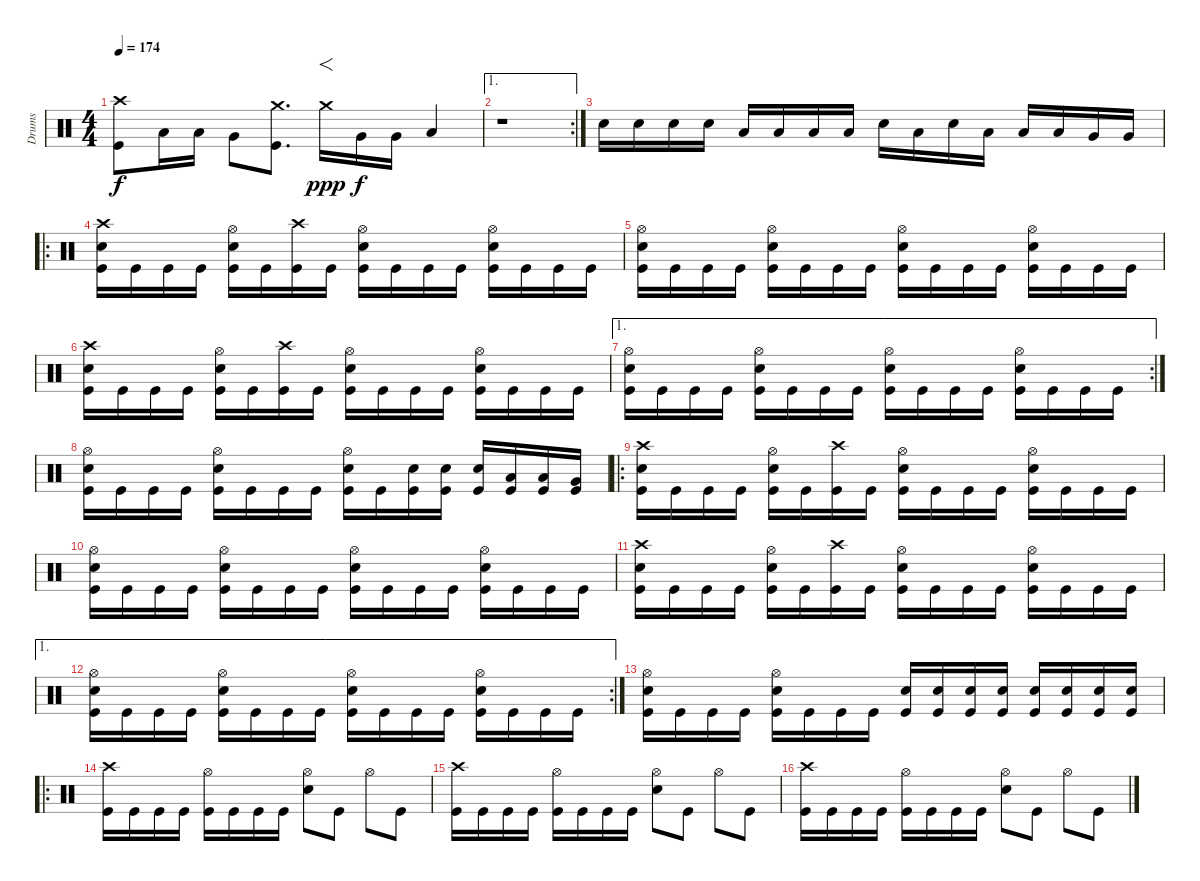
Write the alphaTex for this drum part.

\track ("Drums" "Drums") {instrument percussion}
\staff {score}
\articulation defaults
\ts (4 4)
\tempo 174
\clef neutral
\ks c
("Crash high (hit)" "Kick (hit)").8{dy f} "Low Tom (hit)".16 "Low Tom (hit)".16 "Very Low Tom (hit)".8 ("Crash medium (hit)" "Kick (hit)").8{d} "Crash medium (hit)".16{f dy ppp} "Very Low Tom (hit)".16{dy f} "Very Low Tom (hit)".16 "Low Floor Tom (hit)".4 |
\ae 1
\rc 2
r.1 |
"Electric Snare (hit)".16 "Electric Snare (hit)".16 "Electric Snare (hit)".16 "Electric Snare (hit)".16 "Low Tom (hit)".16 "Low Tom (hit)".16 "Low Tom (hit)".16 "Low Tom (hit)".16 "Electric Snare (hit)".16 "Low Tom (hit)".16 "Electric Snare (hit)".16 "Low Tom (hit)".16 "Low Tom (hit)".16 "Low Tom (hit)".16 "Very Low Tom (hit)".16 "Very Low Tom (hit)".16 |
\ro
("Crash high (hit)" "Electric Snare (hit)" "Kick (hit)").16 "Kick (hit)".16 "Kick (hit)".16 "Kick (hit)".16 ("Hi-Hat (open)" "Electric Snare (hit)" "Kick (hit)").16 "Kick (hit)".16 ("Crash high (hit)" "Kick (hit)").16 "Kick (hit)".16 ("Hi-Hat (open)" "Electric Snare (hit)" "Kick (hit)").16 "Kick (hit)".16 "Kick (hit)".16 "Kick (hit)".16 ("Hi-Hat (open)" "Electric Snare (hit)" "Kick (hit)").16 "Kick (hit)".16 "Kick (hit)".16 "Kick (hit)".16 |
("Hi-Hat (open)" "Electric Snare (hit)" "Kick (hit)").16 "Kick (hit)".16 "Kick (hit)".16 "Kick (hit)".16 ("Hi-Hat (open)" "Electric Snare (hit)" "Kick (hit)").16 "Kick (hit)".16 "Kick (hit)".16 "Kick (hit)".16 ("Hi-Hat (open)" "Electric Snare (hit)" "Kick (hit)").16 "Kick (hit)".16 "Kick (hit)".16 "Kick (hit)".16 ("Hi-Hat (open)" "Electric Snare (hit)" "Kick (hit)").16 "Kick (hit)".16 "Kick (hit)".16 "Kick (hit)".16 |
("Crash high (hit)" "Electric Snare (hit)" "Kick (hit)").16 "Kick (hit)".16 "Kick (hit)".16 "Kick (hit)".16 ("Hi-Hat (open)" "Electric Snare (hit)" "Kick (hit)").16 "Kick (hit)".16 ("Crash high (hit)" "Kick (hit)").16 "Kick (hit)".16 ("Hi-Hat (open)" "Electric Snare (hit)" "Kick (hit)").16 "Kick (hit)".16 "Kick (hit)".16 "Kick (hit)".16 ("Hi-Hat (open)" "Electric Snare (hit)" "Kick (hit)").16 "Kick (hit)".16 "Kick (hit)".16 "Kick (hit)".16 |
\ae 1
\rc 2
("Hi-Hat (open)" "Electric Snare (hit)" "Kick (hit)").16 "Kick (hit)".16 "Kick (hit)".16 "Kick (hit)".16 ("Hi-Hat (open)" "Electric Snare (hit)" "Kick (hit)").16 "Kick (hit)".16 "Kick (hit)".16 "Kick (hit)".16 ("Hi-Hat (open)" "Electric Snare (hit)" "Kick (hit)").16 "Kick (hit)".16 "Kick (hit)".16 "Kick (hit)".16 ("Hi-Hat (open)" "Electric Snare (hit)" "Kick (hit)").16 "Kick (hit)".16 "Kick (hit)".16 "Kick (hit)".16 |
("Hi-Hat (open)" "Electric Snare (hit)" "Kick (hit)").16 "Kick (hit)".16 "Kick (hit)".16 "Kick (hit)".16 ("Hi-Hat (open)" "Electric Snare (hit)" "Kick (hit)").16 "Kick (hit)".16 "Kick (hit)".16 "Kick (hit)".16 ("Hi-Hat (open)" "Electric Snare (hit)" "Kick (hit)").16 "Kick (hit)".16 ("Electric Snare (hit)" "Kick (hit)").16 ("Electric Snare (hit)" "Kick (hit)").16 ("Electric Snare (hit)" "Kick (hit)").16 ("Low Tom (hit)" "Kick (hit)").16 ("Low Tom (hit)" "Kick (hit)").16 ("Very Low Tom (hit)" "Kick (hit)").16 |
\ro
("Crash high (hit)" "Electric Snare (hit)" "Kick (hit)").16 "Kick (hit)".16 "Kick (hit)".16 "Kick (hit)".16 ("Hi-Hat (open)" "Electric Snare (hit)" "Kick (hit)").16 "Kick (hit)".16 ("Crash high (hit)" "Kick (hit)").16 "Kick (hit)".16 ("Hi-Hat (open)" "Electric Snare (hit)" "Kick (hit)").16 "Kick (hit)".16 "Kick (hit)".16 "Kick (hit)".16 ("Hi-Hat (open)" "Electric Snare (hit)" "Kick (hit)").16 "Kick (hit)".16 "Kick (hit)".16 "Kick (hit)".16 |
("Hi-Hat (open)" "Electric Snare (hit)" "Kick (hit)").16 "Kick (hit)".16 "Kick (hit)".16 "Kick (hit)".16 ("Hi-Hat (open)" "Electric Snare (hit)" "Kick (hit)").16 "Kick (hit)".16 "Kick (hit)".16 "Kick (hit)".16 ("Hi-Hat (open)" "Electric Snare (hit)" "Kick (hit)").16 "Kick (hit)".16 "Kick (hit)".16 "Kick (hit)".16 ("Hi-Hat (open)" "Electric Snare (hit)" "Kick (hit)").16 "Kick (hit)".16 "Kick (hit)".16 "Kick (hit)".16 |
("Crash high (hit)" "Electric Snare (hit)" "Kick (hit)").16 "Kick (hit)".16 "Kick (hit)".16 "Kick (hit)".16 ("Hi-Hat (open)" "Electric Snare (hit)" "Kick (hit)").16 "Kick (hit)".16 ("Crash high (hit)" "Kick (hit)").16 "Kick (hit)".16 ("Hi-Hat (open)" "Electric Snare (hit)" "Kick (hit)").16 "Kick (hit)".16 "Kick (hit)".16 "Kick (hit)".16 ("Hi-Hat (open)" "Electric Snare (hit)" "Kick (hit)").16 "Kick (hit)".16 "Kick (hit)".16 "Kick (hit)".16 |
\ae 1
\rc 2
("Hi-Hat (open)" "Electric Snare (hit)" "Kick (hit)").16 "Kick (hit)".16 "Kick (hit)".16 "Kick (hit)".16 ("Hi-Hat (open)" "Electric Snare (hit)" "Kick (hit)").16 "Kick (hit)".16 "Kick (hit)".16 "Kick (hit)".16 ("Hi-Hat (open)" "Electric Snare (hit)" "Kick (hit)").16 "Kick (hit)".16 "Kick (hit)".16 "Kick (hit)".16 ("Hi-Hat (open)" "Electric Snare (hit)" "Kick (hit)").16 "Kick (hit)".16 "Kick (hit)".16 "Kick (hit)".16 |
("Hi-Hat (open)" "Electric Snare (hit)" "Kick (hit)").16 "Kick (hit)".16 "Kick (hit)".16 "Kick (hit)".16 ("Hi-Hat (open)" "Electric Snare (hit)" "Kick (hit)").16 "Kick (hit)".16 "Kick (hit)".16 "Kick (hit)".16 ("Electric Snare (hit)" "Kick (hit)").16 ("Electric Snare (hit)" "Kick (hit)").16 ("Electric Snare (hit)" "Kick (hit)").16 ("Electric Snare (hit)" "Kick (hit)").16 ("Electric Snare (hit)" "Kick (hit)").16 ("Electric Snare (hit)" "Kick (hit)").16 ("Electric Snare (hit)" "Kick (hit)").16 ("Electric Snare (hit)" "Kick (hit)").16 |
\ro
("Crash high (hit)" "Kick (hit)").16 "Kick (hit)".16 "Kick (hit)".16 "Kick (hit)".16 ("Hi-Hat (open)" "Kick (hit)").16 "Kick (hit)".16 "Kick (hit)".16 "Kick (hit)".16 ("Hi-Hat (open)" "Electric Snare (hit)").8 "Kick (hit)".8 "Hi-Hat (open)".8 "Kick (hit)".8 |
("Crash high (hit)" "Kick (hit)").16 "Kick (hit)".16 "Kick (hit)".16 "Kick (hit)".16 ("Hi-Hat (open)" "Kick (hit)").16 "Kick (hit)".16 "Kick (hit)".16 "Kick (hit)".16 ("Hi-Hat (open)" "Electric Snare (hit)").8 "Kick (hit)".8 "Hi-Hat (open)".8 "Kick (hit)".8 |
("Crash high (hit)" "Kick (hit)").16 "Kick (hit)".16 "Kick (hit)".16 "Kick (hit)".16 ("Hi-Hat (open)" "Kick (hit)").16 "Kick (hit)".16 "Kick (hit)".16 "Kick (hit)".16 ("Hi-Hat (open)" "Electric Snare (hit)").8 "Kick (hit)".8 "Hi-Hat (open)".8 "Kick (hit)".8
